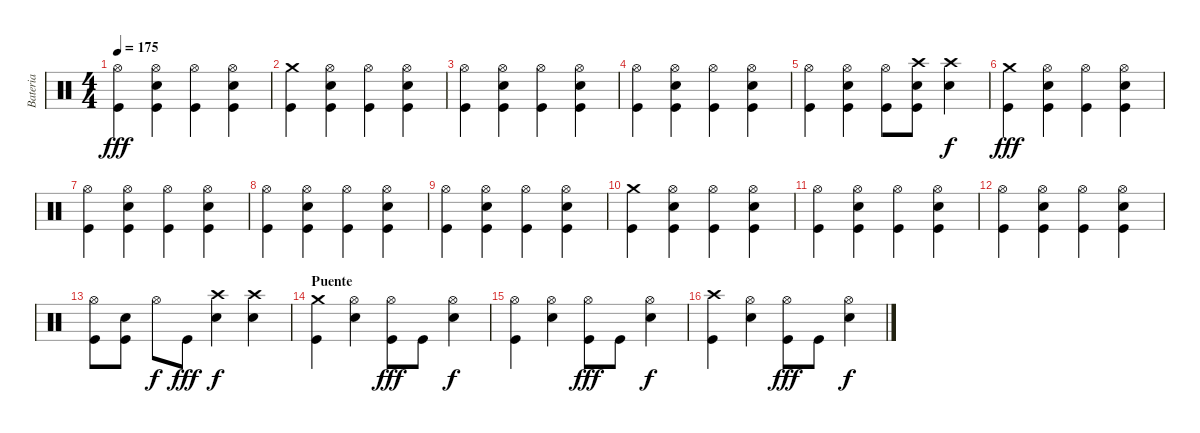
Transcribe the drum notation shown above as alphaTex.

\track ("Bateria" "Bateria") {instrument percussion}
\staff {score}
\articulation defaults
\ts (4 4)
\tempo 175
\clef neutral
\ks c
("Hi-Hat (open)" "Kick (hit)").4{dy fff} ("Hi-Hat (open)" "Electric Snare (hit)" "Kick (hit)").4 ("Hi-Hat (open)" "Kick (hit)").4 ("Hi-Hat (open)" "Electric Snare (hit)" "Kick (hit)").4 |
("Crash medium (hit)" "Kick (hit)").4 ("Hi-Hat (open)" "Electric Snare (hit)" "Kick (hit)").4 ("Hi-Hat (open)" "Kick (hit)").4 ("Hi-Hat (open)" "Electric Snare (hit)" "Kick (hit)").4 |
("Hi-Hat (open)" "Kick (hit)").4 ("Hi-Hat (open)" "Electric Snare (hit)" "Kick (hit)").4 ("Hi-Hat (open)" "Kick (hit)").4 ("Hi-Hat (open)" "Electric Snare (hit)" "Kick (hit)").4 |
("Hi-Hat (open)" "Kick (hit)").4 ("Hi-Hat (open)" "Electric Snare (hit)" "Kick (hit)").4 ("Hi-Hat (open)" "Kick (hit)").4 ("Hi-Hat (open)" "Electric Snare (hit)" "Kick (hit)").4 |
("Hi-Hat (open)" "Kick (hit)").4 ("Hi-Hat (open)" "Electric Snare (hit)" "Kick (hit)").4 ("Hi-Hat (open)" "Kick (hit)").8 ("Crash high (hit)" "Electric Snare (hit)" "Kick (hit)").8 ("Crash high (hit)" "Electric Snare (hit)").4{dy f} |
("Crash medium (hit)" "Kick (hit)").4{dy fff} ("Hi-Hat (open)" "Electric Snare (hit)" "Kick (hit)").4 ("Hi-Hat (open)" "Kick (hit)").4 ("Hi-Hat (open)" "Electric Snare (hit)" "Kick (hit)").4 |
("Hi-Hat (open)" "Kick (hit)").4 ("Hi-Hat (open)" "Electric Snare (hit)" "Kick (hit)").4 ("Hi-Hat (open)" "Kick (hit)").4 ("Hi-Hat (open)" "Electric Snare (hit)" "Kick (hit)").4 |
("Hi-Hat (open)" "Kick (hit)").4 ("Hi-Hat (open)" "Electric Snare (hit)" "Kick (hit)").4 ("Hi-Hat (open)" "Kick (hit)").4 ("Hi-Hat (open)" "Electric Snare (hit)" "Kick (hit)").4 |
("Hi-Hat (open)" "Kick (hit)").4 ("Hi-Hat (open)" "Electric Snare (hit)" "Kick (hit)").4 ("Hi-Hat (open)" "Kick (hit)").4 ("Hi-Hat (open)" "Electric Snare (hit)" "Kick (hit)").4 |
("Crash medium (hit)" "Kick (hit)").4 ("Hi-Hat (open)" "Electric Snare (hit)" "Kick (hit)").4 ("Hi-Hat (open)" "Kick (hit)").4 ("Hi-Hat (open)" "Electric Snare (hit)" "Kick (hit)").4 |
("Hi-Hat (open)" "Kick (hit)").4 ("Hi-Hat (open)" "Electric Snare (hit)" "Kick (hit)").4 ("Hi-Hat (open)" "Kick (hit)").4 ("Hi-Hat (open)" "Electric Snare (hit)" "Kick (hit)").4 |
("Hi-Hat (open)" "Kick (hit)").4 ("Hi-Hat (open)" "Electric Snare (hit)" "Kick (hit)").4 ("Hi-Hat (open)" "Kick (hit)").4 ("Hi-Hat (open)" "Electric Snare (hit)" "Kick (hit)").4 |
("Hi-Hat (open)" "Kick (hit)").8 ("Electric Snare (hit)" "Kick (hit)").8 "Hi-Hat (open)".8{dy f} "Kick (hit)".8{dy fff} ("Crash high (hit)" "Electric Snare (hit)").4{dy f} ("Crash high (hit)" "Electric Snare (hit)").4 |
\section ("" "Puente")
("Crash medium (hit)" "Kick (hit)").4 ("Hi-Hat (open)" "Electric Snare (hit)").4 ("Hi-Hat (open)" "Kick (hit)").8{dy fff} "Kick (hit)".8 ("Hi-Hat (open)" "Electric Snare (hit)").4{dy f} |
("Hi-Hat (open)" "Kick (hit)").4 ("Hi-Hat (open)" "Electric Snare (hit)").4 ("Hi-Hat (open)" "Kick (hit)").8{dy fff} "Kick (hit)".8 ("Hi-Hat (open)" "Electric Snare (hit)").4{dy f} |
("Crash high (hit)" "Kick (hit)").4 ("Hi-Hat (open)" "Electric Snare (hit)").4 ("Hi-Hat (open)" "Kick (hit)").8{dy fff} "Kick (hit)".8 ("Hi-Hat (open)" "Electric Snare (hit)").4{dy f}
